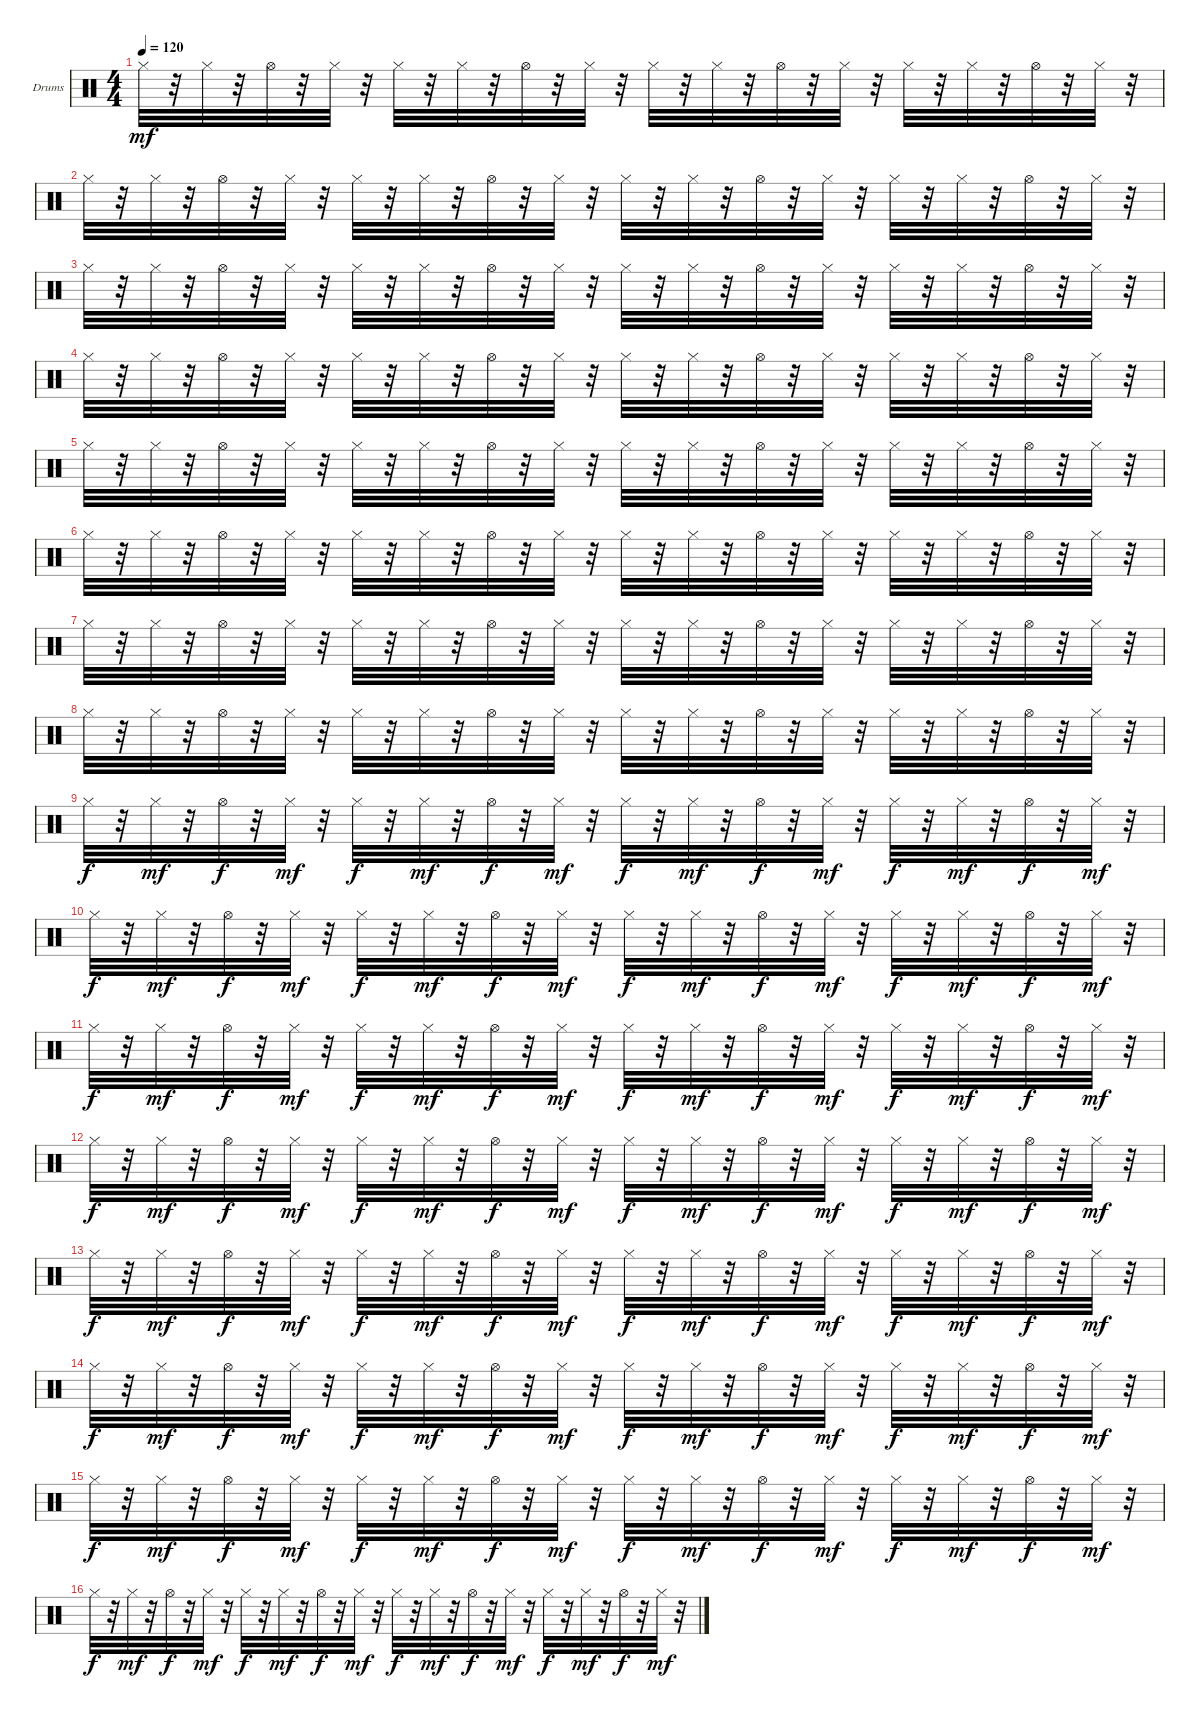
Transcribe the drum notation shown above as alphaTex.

\defaultSystemsLayout 4
\bracketExtendMode groupsimilarinstruments
\firstSystemTrackNameOrientation horizontal
\otherSystemsTrackNameOrientation horizontal
\track ("Drumkit" "Drums") {instrument percussion}
\staff {score}
\articulation defaults
\ts (4 4)
\tempo 120
\clef neutral
\ks c "Hi-Hat (closed)".32{dy mf}
r.32 "Hi-Hat (closed)".32 r.32 "Hi-Hat (open)".32 r.32 "Hi-Hat (closed)".32 r.32 "Hi-Hat (closed)".32 r.32 "Hi-Hat (closed)".32 r.32 "Hi-Hat (open)".32 r.32 "Hi-Hat (closed)".32 r.32 "Hi-Hat (closed)".32 r.32 "Hi-Hat (closed)".32 r.32 "Hi-Hat (open)".32 r.32 "Hi-Hat (closed)".32 r.32 "Hi-Hat (closed)".32 r.32 "Hi-Hat (closed)".32 r.32 "Hi-Hat (open)".32 r.32 "Hi-Hat (closed)".32 r.32 |
"Hi-Hat (closed)".32 r.32 "Hi-Hat (closed)".32 r.32 "Hi-Hat (open)".32 r.32 "Hi-Hat (closed)".32 r.32 "Hi-Hat (closed)".32 r.32 "Hi-Hat (closed)".32 r.32 "Hi-Hat (open)".32 r.32 "Hi-Hat (closed)".32 r.32 "Hi-Hat (closed)".32 r.32 "Hi-Hat (closed)".32 r.32 "Hi-Hat (open)".32 r.32 "Hi-Hat (closed)".32 r.32 "Hi-Hat (closed)".32 r.32 "Hi-Hat (closed)".32 r.32 "Hi-Hat (open)".32 r.32 "Hi-Hat (closed)".32 r.32 |
"Hi-Hat (closed)".32 r.32 "Hi-Hat (closed)".32 r.32 "Hi-Hat (open)".32 r.32 "Hi-Hat (closed)".32 r.32 "Hi-Hat (closed)".32 r.32 "Hi-Hat (closed)".32 r.32 "Hi-Hat (open)".32 r.32 "Hi-Hat (closed)".32 r.32 "Hi-Hat (closed)".32 r.32 "Hi-Hat (closed)".32 r.32 "Hi-Hat (open)".32 r.32 "Hi-Hat (closed)".32 r.32 "Hi-Hat (closed)".32 r.32 "Hi-Hat (closed)".32 r.32 "Hi-Hat (open)".32 r.32 "Hi-Hat (closed)".32 r.32 |
"Hi-Hat (closed)".32 r.32 "Hi-Hat (closed)".32 r.32 "Hi-Hat (open)".32 r.32 "Hi-Hat (closed)".32 r.32 "Hi-Hat (closed)".32 r.32 "Hi-Hat (closed)".32 r.32 "Hi-Hat (open)".32 r.32 "Hi-Hat (closed)".32 r.32 "Hi-Hat (closed)".32 r.32 "Hi-Hat (closed)".32 r.32 "Hi-Hat (open)".32 r.32 "Hi-Hat (closed)".32 r.32 "Hi-Hat (closed)".32 r.32 "Hi-Hat (closed)".32 r.32 "Hi-Hat (open)".32 r.32 "Hi-Hat (closed)".32 r.32 |
"Hi-Hat (closed)".32 r.32 "Hi-Hat (closed)".32 r.32 "Hi-Hat (open)".32 r.32 "Hi-Hat (closed)".32 r.32 "Hi-Hat (closed)".32 r.32 "Hi-Hat (closed)".32 r.32 "Hi-Hat (open)".32 r.32 "Hi-Hat (closed)".32 r.32 "Hi-Hat (closed)".32 r.32 "Hi-Hat (closed)".32 r.32 "Hi-Hat (open)".32 r.32 "Hi-Hat (closed)".32 r.32 "Hi-Hat (closed)".32 r.32 "Hi-Hat (closed)".32 r.32 "Hi-Hat (open)".32 r.32 "Hi-Hat (closed)".32 r.32 |
"Hi-Hat (closed)".32 r.32 "Hi-Hat (closed)".32 r.32 "Hi-Hat (open)".32 r.32 "Hi-Hat (closed)".32 r.32 "Hi-Hat (closed)".32 r.32 "Hi-Hat (closed)".32 r.32 "Hi-Hat (open)".32 r.32 "Hi-Hat (closed)".32 r.32 "Hi-Hat (closed)".32 r.32 "Hi-Hat (closed)".32 r.32 "Hi-Hat (open)".32 r.32 "Hi-Hat (closed)".32 r.32 "Hi-Hat (closed)".32 r.32 "Hi-Hat (closed)".32 r.32 "Hi-Hat (open)".32 r.32 "Hi-Hat (closed)".32 r.32 |
"Hi-Hat (closed)".32 r.32 "Hi-Hat (closed)".32 r.32 "Hi-Hat (open)".32 r.32 "Hi-Hat (closed)".32 r.32 "Hi-Hat (closed)".32 r.32 "Hi-Hat (closed)".32 r.32 "Hi-Hat (open)".32 r.32 "Hi-Hat (closed)".32 r.32 "Hi-Hat (closed)".32 r.32 "Hi-Hat (closed)".32 r.32 "Hi-Hat (open)".32 r.32 "Hi-Hat (closed)".32 r.32 "Hi-Hat (closed)".32 r.32 "Hi-Hat (closed)".32 r.32 "Hi-Hat (open)".32 r.32 "Hi-Hat (closed)".32 r.32 |
"Hi-Hat (closed)".32 r.32 "Hi-Hat (closed)".32 r.32 "Hi-Hat (open)".32 r.32 "Hi-Hat (closed)".32 r.32 "Hi-Hat (closed)".32 r.32 "Hi-Hat (closed)".32 r.32 "Hi-Hat (open)".32 r.32 "Hi-Hat (closed)".32 r.32 "Hi-Hat (closed)".32 r.32 "Hi-Hat (closed)".32 r.32 "Hi-Hat (open)".32 r.32 "Hi-Hat (closed)".32 r.32 "Hi-Hat (closed)".32 r.32 "Hi-Hat (closed)".32 r.32 "Hi-Hat (open)".32 r.32 "Hi-Hat (closed)".32 r.32 |
"Hi-Hat (closed)".32{dy f} r.32 "Hi-Hat (closed)".32{dy mf} r.32 "Hi-Hat (open)".32{dy f} r.32 "Hi-Hat (closed)".32{dy mf} r.32 "Hi-Hat (closed)".32{dy f} r.32 "Hi-Hat (closed)".32{dy mf} r.32 "Hi-Hat (open)".32{dy f} r.32 "Hi-Hat (closed)".32{dy mf} r.32 "Hi-Hat (closed)".32{dy f} r.32 "Hi-Hat (closed)".32{dy mf} r.32 "Hi-Hat (open)".32{dy f} r.32 "Hi-Hat (closed)".32{dy mf} r.32 "Hi-Hat (closed)".32{dy f} r.32 "Hi-Hat (closed)".32{dy mf} r.32 "Hi-Hat (open)".32{dy f} r.32 "Hi-Hat (closed)".32{dy mf} r.32 |
"Hi-Hat (closed)".32{dy f} r.32 "Hi-Hat (closed)".32{dy mf} r.32 "Hi-Hat (open)".32{dy f} r.32 "Hi-Hat (closed)".32{dy mf} r.32 "Hi-Hat (closed)".32{dy f} r.32 "Hi-Hat (closed)".32{dy mf} r.32 "Hi-Hat (open)".32{dy f} r.32 "Hi-Hat (closed)".32{dy mf} r.32 "Hi-Hat (closed)".32{dy f} r.32 "Hi-Hat (closed)".32{dy mf} r.32 "Hi-Hat (open)".32{dy f} r.32 "Hi-Hat (closed)".32{dy mf} r.32 "Hi-Hat (closed)".32{dy f} r.32 "Hi-Hat (closed)".32{dy mf} r.32 "Hi-Hat (open)".32{dy f} r.32 "Hi-Hat (closed)".32{dy mf} r.32 |
"Hi-Hat (closed)".32{dy f} r.32 "Hi-Hat (closed)".32{dy mf} r.32 "Hi-Hat (open)".32{dy f} r.32 "Hi-Hat (closed)".32{dy mf} r.32 "Hi-Hat (closed)".32{dy f} r.32 "Hi-Hat (closed)".32{dy mf} r.32 "Hi-Hat (open)".32{dy f} r.32 "Hi-Hat (closed)".32{dy mf} r.32 "Hi-Hat (closed)".32{dy f} r.32 "Hi-Hat (closed)".32{dy mf} r.32 "Hi-Hat (open)".32{dy f} r.32 "Hi-Hat (closed)".32{dy mf} r.32 "Hi-Hat (closed)".32{dy f} r.32 "Hi-Hat (closed)".32{dy mf} r.32 "Hi-Hat (open)".32{dy f} r.32 "Hi-Hat (closed)".32{dy mf} r.32 |
"Hi-Hat (closed)".32{dy f} r.32 "Hi-Hat (closed)".32{dy mf} r.32 "Hi-Hat (open)".32{dy f} r.32 "Hi-Hat (closed)".32{dy mf} r.32 "Hi-Hat (closed)".32{dy f} r.32 "Hi-Hat (closed)".32{dy mf} r.32 "Hi-Hat (open)".32{dy f} r.32 "Hi-Hat (closed)".32{dy mf} r.32 "Hi-Hat (closed)".32{dy f} r.32 "Hi-Hat (closed)".32{dy mf} r.32 "Hi-Hat (open)".32{dy f} r.32 "Hi-Hat (closed)".32{dy mf} r.32 "Hi-Hat (closed)".32{dy f} r.32 "Hi-Hat (closed)".32{dy mf} r.32 "Hi-Hat (open)".32{dy f} r.32 "Hi-Hat (closed)".32{dy mf} r.32 |
"Hi-Hat (closed)".32{dy f} r.32 "Hi-Hat (closed)".32{dy mf} r.32 "Hi-Hat (open)".32{dy f} r.32 "Hi-Hat (closed)".32{dy mf} r.32 "Hi-Hat (closed)".32{dy f} r.32 "Hi-Hat (closed)".32{dy mf} r.32 "Hi-Hat (open)".32{dy f} r.32 "Hi-Hat (closed)".32{dy mf} r.32 "Hi-Hat (closed)".32{dy f} r.32 "Hi-Hat (closed)".32{dy mf} r.32 "Hi-Hat (open)".32{dy f} r.32 "Hi-Hat (closed)".32{dy mf} r.32 "Hi-Hat (closed)".32{dy f} r.32 "Hi-Hat (closed)".32{dy mf} r.32 "Hi-Hat (open)".32{dy f} r.32 "Hi-Hat (closed)".32{dy mf} r.32 |
"Hi-Hat (closed)".32{dy f} r.32 "Hi-Hat (closed)".32{dy mf} r.32 "Hi-Hat (open)".32{dy f} r.32 "Hi-Hat (closed)".32{dy mf} r.32 "Hi-Hat (closed)".32{dy f} r.32 "Hi-Hat (closed)".32{dy mf} r.32 "Hi-Hat (open)".32{dy f} r.32 "Hi-Hat (closed)".32{dy mf} r.32 "Hi-Hat (closed)".32{dy f} r.32 "Hi-Hat (closed)".32{dy mf} r.32 "Hi-Hat (open)".32{dy f} r.32 "Hi-Hat (closed)".32{dy mf} r.32 "Hi-Hat (closed)".32{dy f} r.32 "Hi-Hat (closed)".32{dy mf} r.32 "Hi-Hat (open)".32{dy f} r.32 "Hi-Hat (closed)".32{dy mf} r.32 |
"Hi-Hat (closed)".32{dy f} r.32 "Hi-Hat (closed)".32{dy mf} r.32 "Hi-Hat (open)".32{dy f} r.32 "Hi-Hat (closed)".32{dy mf} r.32 "Hi-Hat (closed)".32{dy f} r.32 "Hi-Hat (closed)".32{dy mf} r.32 "Hi-Hat (open)".32{dy f} r.32 "Hi-Hat (closed)".32{dy mf} r.32 "Hi-Hat (closed)".32{dy f} r.32 "Hi-Hat (closed)".32{dy mf} r.32 "Hi-Hat (open)".32{dy f} r.32 "Hi-Hat (closed)".32{dy mf} r.32 "Hi-Hat (closed)".32{dy f} r.32 "Hi-Hat (closed)".32{dy mf} r.32 "Hi-Hat (open)".32{dy f} r.32 "Hi-Hat (closed)".32{dy mf} r.32 |
"Hi-Hat (closed)".32{dy f} r.32 "Hi-Hat (closed)".32{dy mf} r.32 "Hi-Hat (open)".32{dy f} r.32 "Hi-Hat (closed)".32{dy mf} r.32 "Hi-Hat (closed)".32{dy f} r.32 "Hi-Hat (closed)".32{dy mf} r.32 "Hi-Hat (open)".32{dy f} r.32 "Hi-Hat (closed)".32{dy mf} r.32 "Hi-Hat (closed)".32{dy f} r.32 "Hi-Hat (closed)".32{dy mf} r.32 "Hi-Hat (open)".32{dy f} r.32 "Hi-Hat (closed)".32{dy mf} r.32 "Hi-Hat (closed)".32{dy f} r.32 "Hi-Hat (closed)".32{dy mf} r.32 "Hi-Hat (open)".32{dy f} r.32 "Hi-Hat (closed)".32{dy mf} r.32
